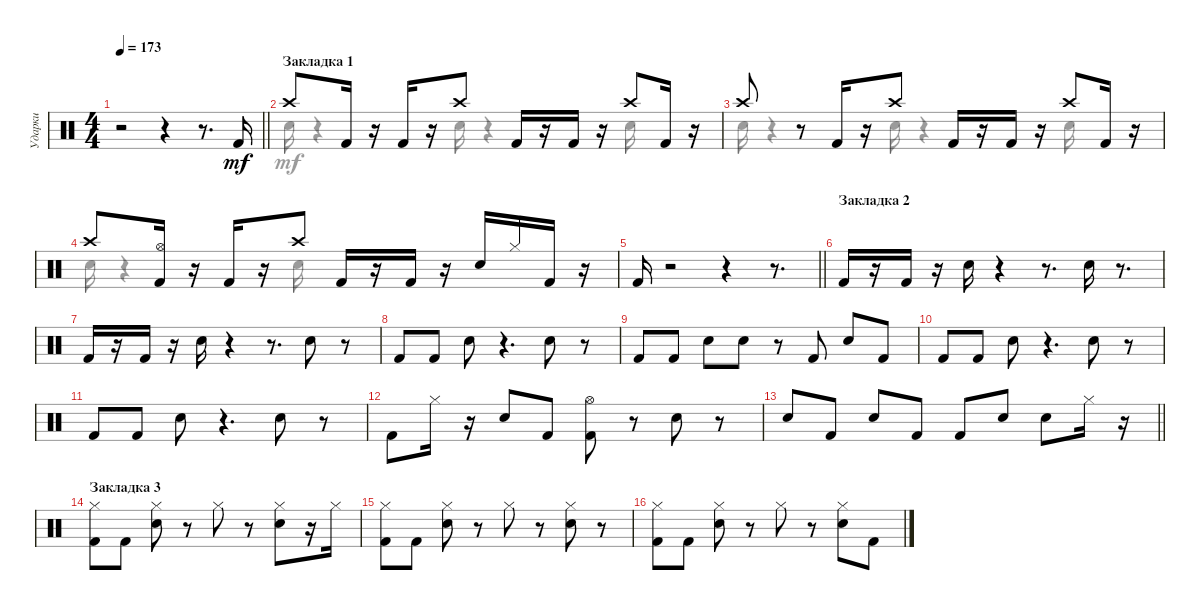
\track ("Ударки" "Ударки") {instrument percussion}
\staff {score}
\articulation defaults
\voice
\ts (4 4)
\tempo 173
\clef neutral
\barLineRight lightlight
\ks aminor
r.2{dy mf} r.4 r.8{d} "Kick (hit) 2".16 |
\section ("" "Закладка 1")
\ks c "Crash high (hit)".8 "Kick (hit) 2".16
r.16 "Kick (hit) 2".16 r.16 "Crash high (hit)".8 "Kick (hit) 2".16 r.16 "Kick (hit) 2".16 r.16 "Crash high (hit)".8 "Kick (hit) 2".16 r.16 |
"Crash high (hit)".8 r.8 "Kick (hit) 2".16 r.16 "Crash high (hit)".8 "Kick (hit) 2".16 r.16 "Kick (hit) 2".16 r.16 "Crash high (hit)".8 "Kick (hit) 2".16 r.16 |
"Crash high (hit)".8 ("Hi-Hat (open)" "Kick (hit) 2").16 r.16 "Kick (hit) 2".16 r.16 "Crash high (hit)".8 "Kick (hit) 2".16 r.16 "Kick (hit) 2".16 r.16 "Snare (hit) 2".16 "Hi-Hat (closed)".16 "Kick (hit) 2".16 r.16 |
\barLineRight lightlight "Kick (hit) 2".16
r.2 r.4 r.8{d} |
\section ("" "Закладка 2")
"Kick (hit) 2".16 r.16 "Kick (hit) 2".16 r.16 "Snare (hit) 2".16 r.4 r.8{d} "Snare (hit) 2".16 r.8{d} |
"Kick (hit) 2".16 r.16 "Kick (hit) 2".16 r.16 "Snare (hit) 2".16 r.4 r.8{d} "Snare (hit) 2".8 r.8 |
"Kick (hit) 2".8 "Kick (hit) 2".8 "Snare (hit) 2".8 r.4{d} "Snare (hit) 2".8 r.8 |
"Kick (hit) 2".8 "Kick (hit) 2".8 "Snare (hit) 2".8 "Snare (hit) 2".8 r.8 "Kick (hit) 2".8 "Snare (hit) 2".8 "Kick (hit) 2".8 |
"Kick (hit) 2".8 "Kick (hit) 2".8 "Snare (hit) 2".8 r.4{d} "Snare (hit) 2".8 r.8 |
"Kick (hit) 2".8 "Kick (hit) 2".8 "Snare (hit) 2".8 r.4{d} "Snare (hit) 2".8 r.8 |
"Kick (hit) 2".8 "Hi-Hat (closed)".16 r.16 "Snare (hit) 2".8 "Kick (hit) 2".8 ("Kick (hit) 2" "Hi-Hat (open)").8 r.8 "Snare (hit) 2".8 r.8 |
\barLineRight lightlight "Snare (hit) 2".8 "Kick (hit) 2".8 "Snare (hit) 2".8 "Kick (hit) 2".8 "Kick (hit) 2".8 "Snare (hit) 2".8 "Snare (hit) 2".8 "Hi-Hat (closed)".16
r.16 |
\section ("" "Закладка 3")
("Kick (hit) 2" "Hi-Hat (closed)").8 "Kick (hit) 2".8 ("Snare (hit) 2" "Hi-Hat (closed)").8 r.8 "Hi-Hat (closed)".8 r.8 ("Hi-Hat (closed)" "Snare (hit) 2").8 r.16 "Hi-Hat (closed)".16 |
("Hi-Hat (closed)" "Kick (hit) 2").8 "Kick (hit) 2".8 ("Hi-Hat (closed)" "Snare (hit) 2").8 r.8 "Hi-Hat (closed)".8 r.8 ("Hi-Hat (closed)" "Snare (hit) 2").8 r.8 |
("Kick (hit) 2" "Hi-Hat (closed)").8 "Kick (hit) 2".8 ("Hi-Hat (closed)" "Snare (hit) 2").8 r.8 "Hi-Hat (closed)".8 r.8 ("Snare (hit) 2" "Hi-Hat (closed)").8 "Kick (hit) 2".8
\voice
\clef neutral
\ottava regular
\simile none
\barLineRight lightlight
\ks aminor
|
\ks c "Snare (hit) 2".16
r.4 r.16 "Snare (hit) 2".16 r.4 r.16 "Snare (hit) 2".16 |
"Snare (hit) 2".16 r.4 r.16 "Snare (hit) 2".16 r.4 r.16 "Snare (hit) 2".16 |
"Snare (hit) 2".16 r.4 r.16 "Snare (hit) 2".16 |
\barLineRight lightlight
|
|
|
|
|
|
|
|
\barLineRight lightlight
|
|
|
